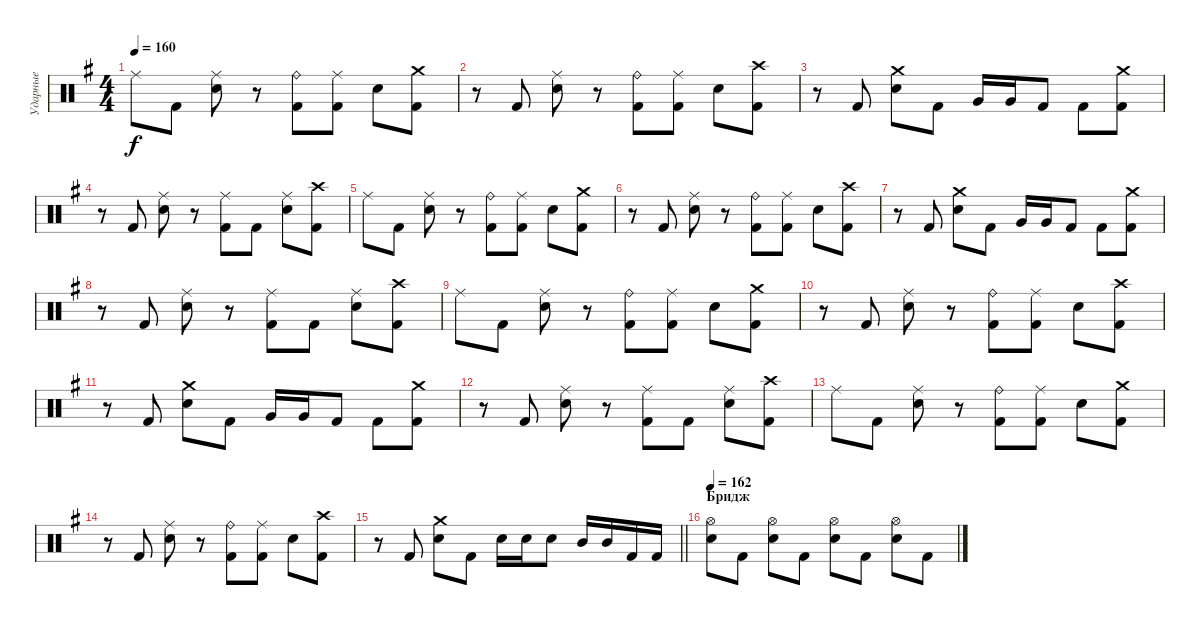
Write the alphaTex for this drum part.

\track ("Ударные" "Ударные") {instrument percussion}
\staff {score}
\articulation defaults
\ts (4 4)
\tempo 160
\clef neutral
\ks eminor "Ride (middle)".8{dy f} "Kick (hit) 2".8
("Ride (middle)" "Electric Snare (hit)").8 r.8 ("Ride (bell)" "Kick (hit) 2").8 ("Ride (middle)" "Kick (hit) 2").8 "Electric Snare (hit)".8 ("Crash medium (hit)" "Kick (hit) 2").8 |
r.8 "Kick (hit) 2".8 ("Ride (middle)" "Electric Snare (hit)").8 r.8 ("Ride (bell)" "Kick (hit) 2").8 ("Ride (middle)" "Kick (hit) 2").8 "Electric Snare (hit)".8 ("Crash high (hit)" "Kick (hit) 2").8 |
r.8 "Kick (hit) 2".8 ("Crash medium (hit)" "Electric Snare (hit)").8 "Kick (hit) 2".8 "Very Low Tom (hit)".16 "Very Low Tom (hit)".16 "Kick (hit) 2".8 "Kick (hit) 2".8 ("Crash medium (hit)" "Kick (hit) 2").8 |
r.8 "Kick (hit) 2".8 ("Ride (middle)" "Electric Snare (hit)").8 r.8 ("Ride (middle)" "Kick (hit) 2").8 "Kick (hit) 2".8 ("Ride (middle)" "Electric Snare (hit)").8 ("Crash high (hit)" "Kick (hit) 2").8 |
"Ride (middle)".8 "Kick (hit) 2".8 ("Ride (middle)" "Electric Snare (hit)").8 r.8 ("Ride (bell)" "Kick (hit) 2").8 ("Ride (middle)" "Kick (hit) 2").8 "Electric Snare (hit)".8 ("Crash medium (hit)" "Kick (hit) 2").8 |
r.8 "Kick (hit) 2".8 ("Ride (middle)" "Electric Snare (hit)").8 r.8 ("Ride (bell)" "Kick (hit) 2").8 ("Ride (middle)" "Kick (hit) 2").8 "Electric Snare (hit)".8 ("Crash high (hit)" "Kick (hit) 2").8 |
r.8 "Kick (hit) 2".8 ("Crash medium (hit)" "Electric Snare (hit)").8 "Kick (hit) 2".8 "Very Low Tom (hit)".16 "Very Low Tom (hit)".16 "Kick (hit) 2".8 "Kick (hit) 2".8 ("Crash medium (hit)" "Kick (hit) 2").8 |
r.8 "Kick (hit) 2".8 ("Ride (middle)" "Electric Snare (hit)").8 r.8 ("Ride (middle)" "Kick (hit) 2").8 "Kick (hit) 2".8 ("Ride (middle)" "Electric Snare (hit)").8 ("Crash high (hit)" "Kick (hit) 2").8 |
"Ride (middle)".8 "Kick (hit) 2".8 ("Ride (middle)" "Electric Snare (hit)").8 r.8 ("Ride (bell)" "Kick (hit) 2").8 ("Ride (middle)" "Kick (hit) 2").8 "Electric Snare (hit)".8 ("Crash medium (hit)" "Kick (hit) 2").8 |
r.8 "Kick (hit) 2".8 ("Ride (middle)" "Electric Snare (hit)").8 r.8 ("Ride (bell)" "Kick (hit) 2").8 ("Ride (middle)" "Kick (hit) 2").8 "Electric Snare (hit)".8 ("Crash high (hit)" "Kick (hit) 2").8 |
r.8 "Kick (hit) 2".8 ("Crash medium (hit)" "Electric Snare (hit)").8 "Kick (hit) 2".8 "Very Low Tom (hit)".16 "Very Low Tom (hit)".16 "Kick (hit) 2".8 "Kick (hit) 2".8 ("Crash medium (hit)" "Kick (hit) 2").8 |
r.8 "Kick (hit) 2".8 ("Ride (middle)" "Electric Snare (hit)").8 r.8 ("Ride (middle)" "Kick (hit) 2").8 "Kick (hit) 2".8 ("Ride (middle)" "Electric Snare (hit)").8 ("Crash high (hit)" "Kick (hit) 2").8 |
"Ride (middle)".8 "Kick (hit) 2".8 ("Ride (middle)" "Electric Snare (hit)").8 r.8 ("Ride (bell)" "Kick (hit) 2").8 ("Ride (middle)" "Kick (hit) 2").8 "Electric Snare (hit)".8 ("Crash medium (hit)" "Kick (hit) 2").8 |
r.8 "Kick (hit) 2".8 ("Ride (middle)" "Electric Snare (hit)").8 r.8 ("Ride (bell)" "Kick (hit) 2").8 ("Ride (middle)" "Kick (hit) 2").8 "Electric Snare (hit)".8 ("Crash high (hit)" "Kick (hit) 2").8 |
\barLineRight lightlight
r.8 "Kick (hit) 2".8 ("Crash medium (hit)" "Electric Snare (hit)").8 "Kick (hit) 2".8 "Electric Snare (hit)".16 "Electric Snare (hit)".16 "Electric Snare (hit)".8 "Mid Tom (hit)".16 "Mid Tom (hit)".16 "Kick (hit) 2".16 "Kick (hit) 2".16 |
\section ("" "Бридж")
\tempo 162
("Hi-Hat (open)" "Electric Snare (hit)").8 "Kick (hit) 2".8 ("Hi-Hat (open)" "Electric Snare (hit)").8 "Kick (hit) 2".8 ("Hi-Hat (open)" "Electric Snare (hit)").8 "Kick (hit) 2".8 ("Hi-Hat (open)" "Electric Snare (hit)").8 "Kick (hit) 2".8
